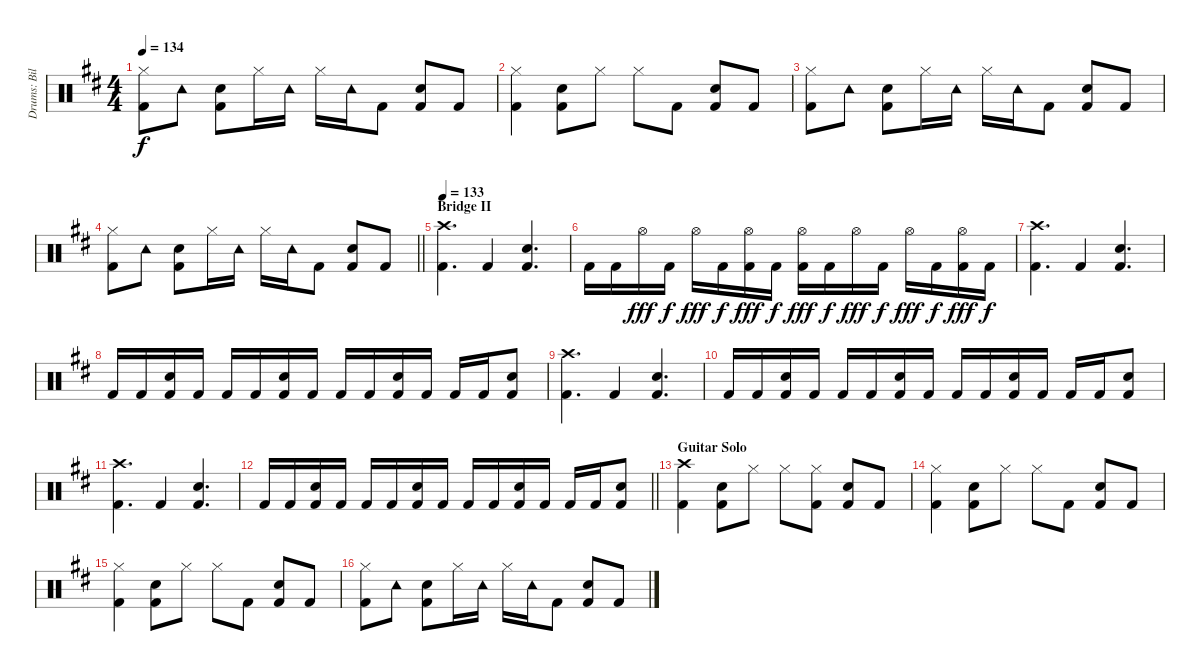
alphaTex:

\track ("Drums: Bill" "Drums: Bil") {instrument percussion}
\staff {score}
\articulation defaults
\ts (4 4)
\tempo 134
\clef neutral
\ks d
("Hi-Hat (closed)" "Kick (hit) 2").8{dy f} "Tambourine (hit)".8 ("Snare (hit) 2" "Kick (hit) 2").8 "Hi-Hat (closed)".16 "Tambourine (hit)".16 "Hi-Hat (closed)".16 "Tambourine (hit)".16 "Kick (hit) 2".8 ("Snare (hit) 2" "Kick (hit) 2").8 "Kick (hit) 2".8 |
("Hi-Hat (closed)" "Kick (hit) 2").4 ("Snare (hit) 2" "Kick (hit) 2").8 "Hi-Hat (closed)".8 "Hi-Hat (closed)".8 "Kick (hit) 2".8 ("Snare (hit) 2" "Kick (hit) 2").8 "Kick (hit) 2".8 |
("Hi-Hat (closed)" "Kick (hit) 2").8 "Tambourine (hit)".8 ("Snare (hit) 2" "Kick (hit) 2").8 "Hi-Hat (closed)".16 "Tambourine (hit)".16 "Hi-Hat (closed)".16 "Tambourine (hit)".16 "Kick (hit) 2".8 ("Snare (hit) 2" "Kick (hit) 2").8 "Kick (hit) 2".8 |
\barLineRight lightlight
("Hi-Hat (closed)" "Kick (hit) 2").8 "Tambourine (hit)".8 ("Snare (hit) 2" "Kick (hit) 2").8 "Hi-Hat (closed)".16 "Tambourine (hit)".16 "Hi-Hat (closed)".16 "Tambourine (hit)".16 "Kick (hit) 2".8 ("Snare (hit) 2" "Kick (hit) 2").8 "Kick (hit) 2".8 |
\section ("" "Bridge II")
\tempo 133
("Crash high (hit)" "Kick (hit) 2").4{d} "Kick (hit) 2".4 ("Snare (hit) 2" "Kick (hit) 2").4{d} |
"Kick (hit) 2".16 "Kick (hit) 2".16 "Hi-Hat (open)".16{dy fff} "Kick (hit) 2".16{dy f} "Hi-Hat (open)".16{dy fff} "Kick (hit) 2".16{dy f} ("Hi-Hat (open)" "Kick (hit) 2").16{dy fff} "Kick (hit) 2".16{dy f} ("Hi-Hat (open)" "Kick (hit) 2").16{dy fff} "Kick (hit) 2".16{dy f} "Hi-Hat (open)".16{dy fff} "Kick (hit) 2".16{dy f} "Hi-Hat (open)".16{dy fff} "Kick (hit) 2".16{dy f} ("Hi-Hat (open)" "Kick (hit) 2").16{dy fff} "Kick (hit) 2".16{dy f} |
("Crash high (hit)" "Kick (hit) 2").4{d} "Kick (hit) 2".4 ("Snare (hit) 2" "Kick (hit) 2").4{d} |
"Kick (hit) 2".16 "Kick (hit) 2".16 ("Snare (hit) 2" "Kick (hit) 2").16 "Kick (hit) 2".16 "Kick (hit) 2".16 "Kick (hit) 2".16 ("Snare (hit) 2" "Kick (hit) 2").16 "Kick (hit) 2".16 "Kick (hit) 2".16 "Kick (hit) 2".16 ("Snare (hit) 2" "Kick (hit) 2").16 "Kick (hit) 2".16 "Kick (hit) 2".16 "Kick (hit) 2".16 ("Snare (hit) 2" "Kick (hit) 2").8 |
("Crash high (hit)" "Kick (hit) 2").4{d} "Kick (hit) 2".4 ("Snare (hit) 2" "Kick (hit) 2").4{d} |
"Kick (hit) 2".16 "Kick (hit) 2".16 ("Snare (hit) 2" "Kick (hit) 2").16 "Kick (hit) 2".16 "Kick (hit) 2".16 "Kick (hit) 2".16 ("Snare (hit) 2" "Kick (hit) 2").16 "Kick (hit) 2".16 "Kick (hit) 2".16 "Kick (hit) 2".16 ("Snare (hit) 2" "Kick (hit) 2").16 "Kick (hit) 2".16 "Kick (hit) 2".16 "Kick (hit) 2".16 ("Snare (hit) 2" "Kick (hit) 2").8 |
("Crash high (hit)" "Kick (hit) 2").4{d} "Kick (hit) 2".4 ("Snare (hit) 2" "Kick (hit) 2").4{d} |
\barLineRight lightlight "Kick (hit) 2".16 "Kick (hit) 2".16
("Snare (hit) 2" "Kick (hit) 2").16 "Kick (hit) 2".16 "Kick (hit) 2".16 "Kick (hit) 2".16 ("Snare (hit) 2" "Kick (hit) 2").16 "Kick (hit) 2".16 "Kick (hit) 2".16 "Kick (hit) 2".16 ("Snare (hit) 2" "Kick (hit) 2").16 "Kick (hit) 2".16 "Kick (hit) 2".16 "Kick (hit) 2".16 ("Snare (hit) 2" "Kick (hit) 2").8 |
\section ("" "Guitar Solo")
("Crash high (hit)" "Kick (hit) 2").4 ("Snare (hit) 2" "Kick (hit) 2").8 "Hi-Hat (closed)".8 "Hi-Hat (closed)".8 ("Hi-Hat (closed)" "Kick (hit) 2").8 ("Snare (hit) 2" "Kick (hit) 2").8 "Kick (hit) 2".8 |
("Hi-Hat (closed)" "Kick (hit) 2").4 ("Snare (hit) 2" "Kick (hit) 2").8 "Hi-Hat (closed)".8 "Hi-Hat (closed)".8 "Kick (hit) 2".8 ("Snare (hit) 2" "Kick (hit) 2").8 "Kick (hit) 2".8 |
("Hi-Hat (closed)" "Kick (hit) 2").4 ("Snare (hit) 2" "Kick (hit) 2").8 "Hi-Hat (closed)".8 "Hi-Hat (closed)".8 "Kick (hit) 2".8 ("Snare (hit) 2" "Kick (hit) 2").8 "Kick (hit) 2".8 |
("Hi-Hat (closed)" "Kick (hit) 2").8 "Tambourine (hit)".8 ("Snare (hit) 2" "Kick (hit) 2").8 "Hi-Hat (closed)".16 "Tambourine (hit)".16 "Hi-Hat (closed)".16 "Tambourine (hit)".16 "Kick (hit) 2".8 ("Snare (hit) 2" "Kick (hit) 2").8 "Kick (hit) 2".8
